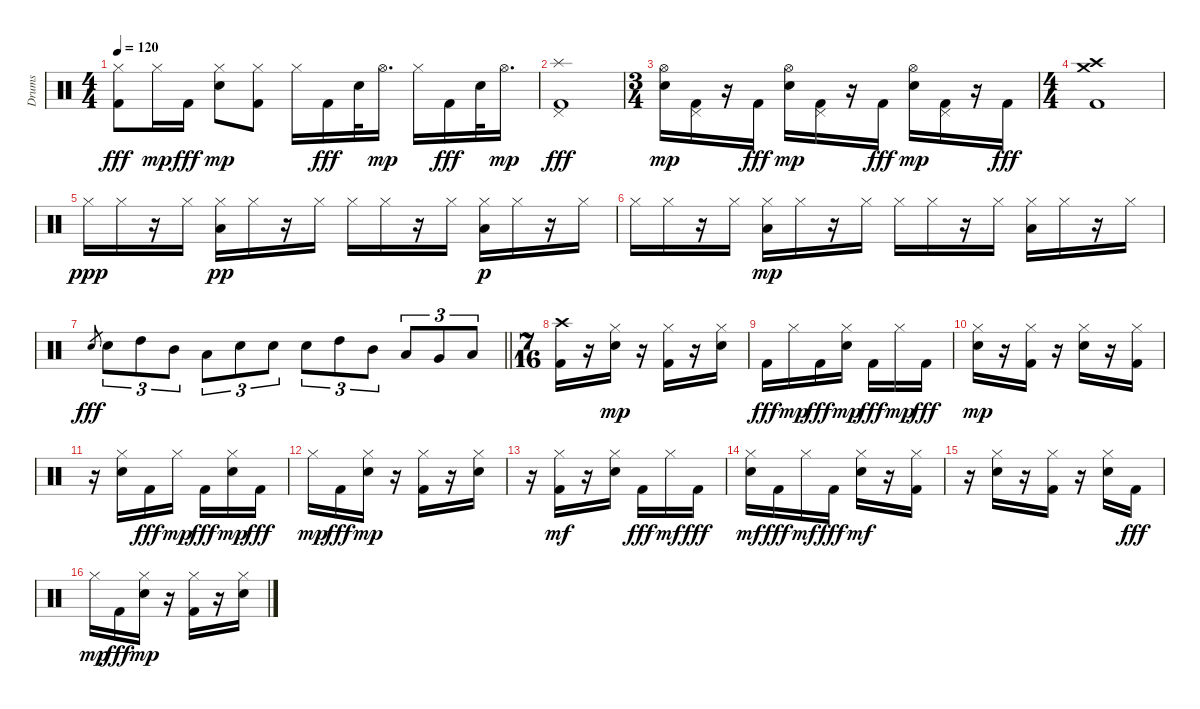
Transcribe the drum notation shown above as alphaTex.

\track ("Drums" "Drums") {instrument percussion}
\staff {score}
\articulation defaults
\ts (4 4)
\tempo 120
\clef neutral
\ks c
("Kick (hit) 2" "Hi-Hat (closed)").8{dy fff} "Hi-Hat (closed)".16{dy mp} "Kick (hit) 2".16{dy fff} ("Electric Snare (hit)" "Hi-Hat (closed)").8{dy mp} ("Kick (hit) 2" "Hi-Hat (closed)").8 "Hi-Hat (closed)".16 "Kick (hit) 2".16{dy fff} "Electric Snare (hit)".32 "Hi-Hat (open)".16{d dy mp} "Hi-Hat (closed)".16 "Kick (hit) 2".16{dy fff} "Electric Snare (hit)".32 "Hi-Hat (open)".16{d dy mp} |
("Kick (hit) 2" "Pedal Hi-Hat (hit)" "Splash (hit)").1{dy fff} |
\ts (3 4)
("Electric Snare (hit)" "Hi-Hat (open)").16{dy mp} ("Kick (hit) 2" "Pedal Hi-Hat (hit)").16 r.16 "Kick (hit) 2".16{dy fff} ("Electric Snare (hit)" "Hi-Hat (open)").16{dy mp} ("Kick (hit) 2" "Pedal Hi-Hat (hit)").16 r.16 "Kick (hit) 2".16{dy fff} ("Electric Snare (hit)" "Hi-Hat (open)").16{dy mp} ("Kick (hit) 2" "Pedal Hi-Hat (hit)").16 r.16 "Kick (hit) 2".16{dy fff} |
\ts (4 4)
("Kick (hit) 2" "Crash medium (hit)" "Crash high (hit)").1 |
"Hi-Hat (closed)".16{dy ppp} "Hi-Hat (closed)".16 r.16 "Hi-Hat (closed)".16 ("Low Floor Tom (hit)" "Hi-Hat (closed)").16{dy pp} "Hi-Hat (closed)".16 r.16 "Hi-Hat (closed)".16 "Hi-Hat (closed)".16 "Hi-Hat (closed)".16 r.16 "Hi-Hat (closed)".16 ("Low Floor Tom (hit)" "Hi-Hat (closed)").16{dy p} "Hi-Hat (closed)".16 r.16 "Hi-Hat (closed)".16 |
"Hi-Hat (closed)".16 "Hi-Hat (closed)".16 r.16 "Hi-Hat (closed)".16 ("Low Floor Tom (hit)" "Hi-Hat (closed)").16{dy mp} "Hi-Hat (closed)".16 r.16 "Hi-Hat (closed)".16 "Hi-Hat (closed)".16 "Hi-Hat (closed)".16 r.16 "Hi-Hat (closed)".16 ("Low Floor Tom (hit)" "Hi-Hat (closed)").16 "Hi-Hat (closed)".16 r.16 "Hi-Hat (closed)".16 |
\barLineRight lightlight "Electric Snare (hit)".8{gr dy fff} "Electric Snare (hit)".8{tu (3 2)} "High Tom (hit)".8{tu (3 2)} "Mid Tom (hit)".8{tu (3 2)} "Low Tom (hit)".8{tu (3 2)} "Electric Snare (hit)".8{tu (3 2)} "Electric Snare (hit)".8{tu (3 2)} "Electric Snare (hit)".8{tu (3 2)} "High Tom (hit)".8{tu (3 2)} "Mid Tom (hit)".8{tu (3 2)} "Low Tom (hit)".8{tu (3 2)} "Very Low Tom (hit)".8{tu (3 2)} "Low Floor Tom (hit)".8{tu (3 2)}
|
\ts (7 16)
("Kick (hit) 2" "Crash high (hit)").16 r.16 ("Electric Snare (hit)" "Hi-Hat (closed)").16{dy mp} r.16 ("Kick (hit) 2" "Hi-Hat (closed)").16 r.16 ("Electric Snare (hit)" "Hi-Hat (closed)").16 |
"Kick (hit) 2".16{dy fff} "Hi-Hat (closed)".16{dy mp} "Kick (hit) 2".16{dy fff} ("Electric Snare (hit)" "Hi-Hat (closed)").16{dy mp} "Kick (hit) 2".16{dy fff} "Hi-Hat (closed)".16{dy mp} "Kick (hit) 2".16{dy fff} |
("Electric Snare (hit)" "Hi-Hat (closed)").16{dy mp} r.16 ("Kick (hit) 2" "Hi-Hat (closed)").16 r.16 ("Electric Snare (hit)" "Hi-Hat (closed)").16 r.16 ("Kick (hit) 2" "Hi-Hat (closed)").16 |
r.16 ("Electric Snare (hit)" "Hi-Hat (closed)").16 "Kick (hit) 2".16{dy fff} "Hi-Hat (closed)".16{dy mp} "Kick (hit) 2".16{dy fff} ("Electric Snare (hit)" "Hi-Hat (closed)").16{dy mp} "Kick (hit) 2".16{dy fff} |
"Hi-Hat (closed)".16{dy mp} "Kick (hit) 2".16{dy fff} ("Electric Snare (hit)" "Hi-Hat (closed)").16{dy mp} r.16 ("Kick (hit) 2" "Hi-Hat (closed)").16 r.16 ("Electric Snare (hit)" "Hi-Hat (closed)").16 |
r.16 ("Kick (hit) 2" "Hi-Hat (closed)").16{dy mf} r.16 ("Electric Snare (hit)" "Hi-Hat (closed)").16 "Kick (hit) 2".16{dy fff} "Hi-Hat (closed)".16{dy mf} "Kick (hit) 2".16{dy fff} |
("Electric Snare (hit)" "Hi-Hat (closed)").16{dy mf} "Kick (hit) 2".16{dy fff} "Hi-Hat (closed)".16{dy mf} "Kick (hit) 2".16{dy fff} ("Electric Snare (hit)" "Hi-Hat (closed)").16{dy mf} r.16 ("Kick (hit) 2" "Hi-Hat (closed)").16 |
r.16 ("Electric Snare (hit)" "Hi-Hat (closed)").16 r.16 ("Kick (hit) 2" "Hi-Hat (closed)").16 r.16 ("Electric Snare (hit)" "Hi-Hat (closed)").16 "Kick (hit) 2".16{dy fff} |
"Hi-Hat (closed)".16{dy mp} "Kick (hit) 2".16{dy fff} ("Electric Snare (hit)" "Hi-Hat (closed)").16{dy mp} r.16 ("Kick (hit) 2" "Hi-Hat (closed)").16 r.16 ("Electric Snare (hit)" "Hi-Hat (closed)").16
